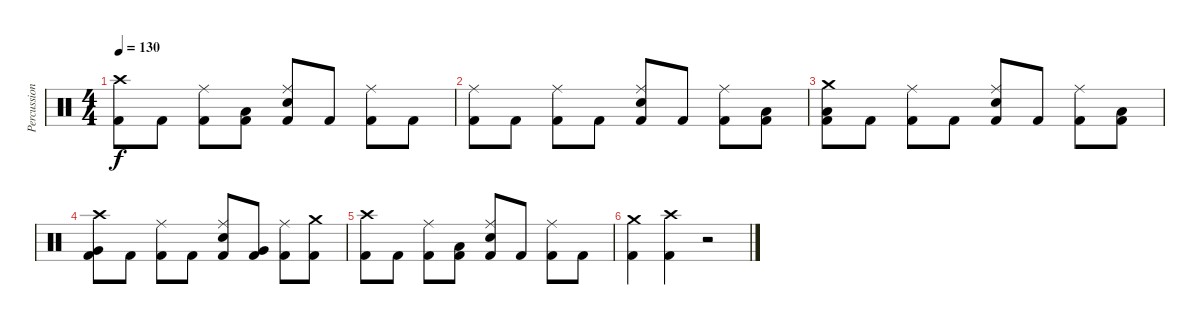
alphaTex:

\track ("Percussion" "Percussion") {instrument percussion}
\staff {score}
\articulation defaults
\ts (4 4)
\tempo 130
\clef neutral
\ks c
("Crash high (hit)" "Kick (hit) 2").8{dy f} "Kick (hit) 2".8 ("Ride (middle)" "Kick (hit) 2").8 ("Low Floor Tom (hit)" "Kick (hit) 2").8 ("Ride (middle)" "Electric Snare (hit)" "Kick (hit) 2").8 "Kick (hit) 2".8 ("Ride (middle)" "Kick (hit) 2").8 "Kick (hit) 2".8 |
("Ride (middle)" "Kick (hit) 2").8 "Kick (hit) 2".8 ("Ride (middle)" "Kick (hit) 2").8 "Kick (hit) 2".8 ("Ride (middle)" "Electric Snare (hit)" "Kick (hit) 2").8 "Kick (hit) 2".8 ("Ride (middle)" "Kick (hit) 2").8 ("Low Tom (hit)" "Kick (hit) 2").8 |
("Crash medium (hit)" "Low Tom (hit)" "Kick (hit) 2").8 "Kick (hit) 2".8 ("Ride (middle)" "Kick (hit) 2").8 "Kick (hit) 2".8 ("Ride (middle)" "Electric Snare (hit)" "Kick (hit) 2").8 "Kick (hit) 2".8 ("Ride (middle)" "Kick (hit) 2").8 ("Low Tom (hit)" "Kick (hit) 2").8 |
("Crash high (hit)" "Very Low Tom (hit)" "Kick (hit) 2").8 "Kick (hit) 2".8 ("Ride (middle)" "Kick (hit) 2").8 "Kick (hit) 2".8 ("Ride (middle)" "Electric Snare (hit)" "Kick (hit) 2").8 ("Very Low Tom (hit)" "Kick (hit) 2").8 ("Ride (middle)" "Kick (hit) 2").8 ("Crash medium (hit)" "Kick (hit) 2").8 |
("Crash high (hit)" "Kick (hit) 2").8 "Kick (hit) 2".8 ("Ride (middle)" "Kick (hit) 2").8 ("Low Floor Tom (hit)" "Kick (hit) 2").8 ("Ride (middle)" "Electric Snare (hit)" "Kick (hit) 2").8 "Kick (hit) 2".8 ("Ride (middle)" "Kick (hit) 2").8 "Kick (hit) 2".8 |
("Crash medium (hit)" "Kick (hit) 2").4 ("Crash high (hit)" "Kick (hit) 2").4 r.2
